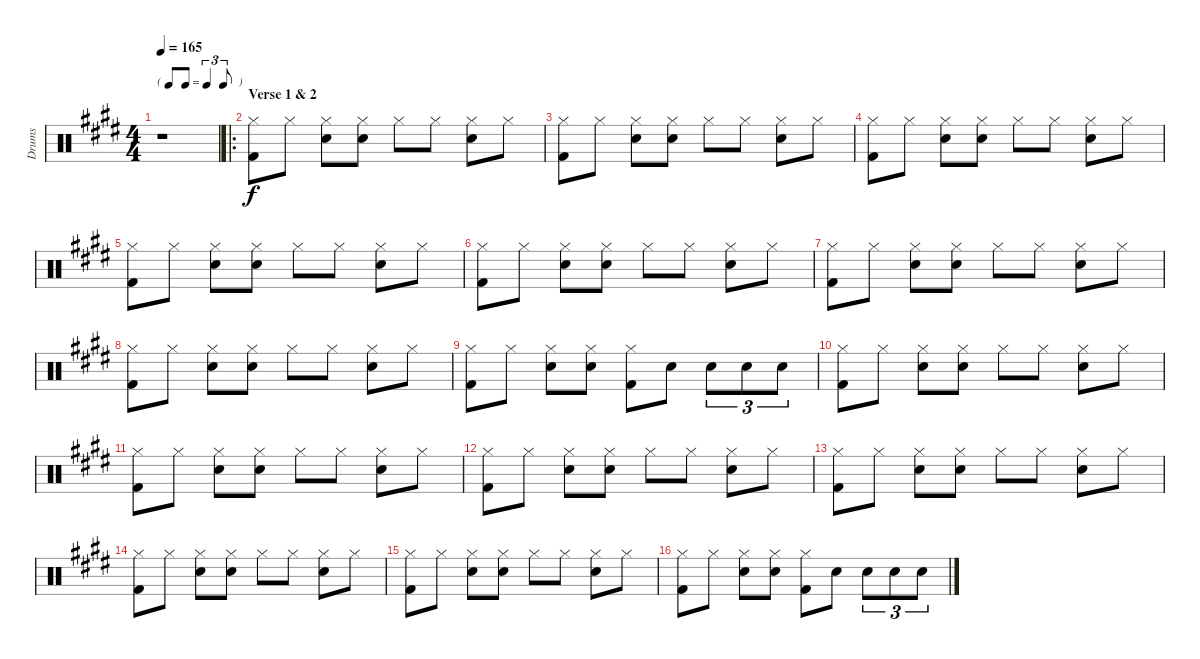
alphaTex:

\track ("Drums" "Drums") {instrument percussion}
\staff {score}
\articulation defaults
\ts (4 4)
\tf triplet8th
\tempo 165
\clef neutral
\ks e
r.1{dy f} |
\ro
\section ("" "Verse 1 & 2")
("Hi-Hat (closed)" "Kick (hit) 2").8 "Hi-Hat (closed)".8 ("Hi-Hat (closed)" "Snare (hit) 2").8 ("Hi-Hat (closed)" "Snare (hit) 2").8 "Hi-Hat (closed)".8 "Hi-Hat (closed)".8 ("Hi-Hat (closed)" "Snare (hit) 2").8 "Hi-Hat (closed)".8 |
("Hi-Hat (closed)" "Kick (hit) 2").8 "Hi-Hat (closed)".8 ("Hi-Hat (closed)" "Snare (hit) 2").8 ("Hi-Hat (closed)" "Snare (hit) 2").8 "Hi-Hat (closed)".8 "Hi-Hat (closed)".8 ("Hi-Hat (closed)" "Snare (hit) 2").8 "Hi-Hat (closed)".8 |
("Hi-Hat (closed)" "Kick (hit) 2").8 "Hi-Hat (closed)".8 ("Hi-Hat (closed)" "Snare (hit) 2").8 ("Hi-Hat (closed)" "Snare (hit) 2").8 "Hi-Hat (closed)".8 "Hi-Hat (closed)".8 ("Hi-Hat (closed)" "Snare (hit) 2").8 "Hi-Hat (closed)".8 |
("Hi-Hat (closed)" "Kick (hit) 2").8 "Hi-Hat (closed)".8 ("Hi-Hat (closed)" "Snare (hit) 2").8 ("Hi-Hat (closed)" "Snare (hit) 2").8 "Hi-Hat (closed)".8 "Hi-Hat (closed)".8 ("Hi-Hat (closed)" "Snare (hit) 2").8 "Hi-Hat (closed)".8 |
("Hi-Hat (closed)" "Kick (hit) 2").8 "Hi-Hat (closed)".8 ("Hi-Hat (closed)" "Snare (hit) 2").8 ("Hi-Hat (closed)" "Snare (hit) 2").8 "Hi-Hat (closed)".8 "Hi-Hat (closed)".8 ("Hi-Hat (closed)" "Snare (hit) 2").8 "Hi-Hat (closed)".8 |
("Hi-Hat (closed)" "Kick (hit) 2").8 "Hi-Hat (closed)".8 ("Hi-Hat (closed)" "Snare (hit) 2").8 ("Hi-Hat (closed)" "Snare (hit) 2").8 "Hi-Hat (closed)".8 "Hi-Hat (closed)".8 ("Hi-Hat (closed)" "Snare (hit) 2").8 "Hi-Hat (closed)".8 |
("Hi-Hat (closed)" "Kick (hit) 2").8 "Hi-Hat (closed)".8 ("Hi-Hat (closed)" "Snare (hit) 2").8 ("Hi-Hat (closed)" "Snare (hit) 2").8 "Hi-Hat (closed)".8 "Hi-Hat (closed)".8 ("Hi-Hat (closed)" "Snare (hit) 2").8 "Hi-Hat (closed)".8 |
("Hi-Hat (closed)" "Kick (hit) 2").8 "Hi-Hat (closed)".8 ("Hi-Hat (closed)" "Snare (hit) 2").8 ("Hi-Hat (closed)" "Snare (hit) 2").8 ("Hi-Hat (closed)" "Kick (hit) 2").8 "Snare (hit) 2".8 "Snare (hit) 2".8{tu (3 2)} "Snare (hit) 2".8{tu (3 2)} "Snare (hit) 2".8{tu (3 2)} |
("Hi-Hat (closed)" "Kick (hit) 2").8 "Hi-Hat (closed)".8 ("Hi-Hat (closed)" "Snare (hit) 2").8 ("Hi-Hat (closed)" "Snare (hit) 2").8 "Hi-Hat (closed)".8 "Hi-Hat (closed)".8 ("Hi-Hat (closed)" "Snare (hit) 2").8 "Hi-Hat (closed)".8 |
("Hi-Hat (closed)" "Kick (hit) 2").8 "Hi-Hat (closed)".8 ("Hi-Hat (closed)" "Snare (hit) 2").8 ("Hi-Hat (closed)" "Snare (hit) 2").8 "Hi-Hat (closed)".8 "Hi-Hat (closed)".8 ("Hi-Hat (closed)" "Snare (hit) 2").8 "Hi-Hat (closed)".8 |
("Hi-Hat (closed)" "Kick (hit) 2").8 "Hi-Hat (closed)".8 ("Hi-Hat (closed)" "Snare (hit) 2").8 ("Hi-Hat (closed)" "Snare (hit) 2").8 "Hi-Hat (closed)".8 "Hi-Hat (closed)".8 ("Hi-Hat (closed)" "Snare (hit) 2").8 "Hi-Hat (closed)".8 |
("Hi-Hat (closed)" "Kick (hit) 2").8 "Hi-Hat (closed)".8 ("Hi-Hat (closed)" "Snare (hit) 2").8 ("Hi-Hat (closed)" "Snare (hit) 2").8 "Hi-Hat (closed)".8 "Hi-Hat (closed)".8 ("Hi-Hat (closed)" "Snare (hit) 2").8 "Hi-Hat (closed)".8 |
("Hi-Hat (closed)" "Kick (hit) 2").8 "Hi-Hat (closed)".8 ("Hi-Hat (closed)" "Snare (hit) 2").8 ("Hi-Hat (closed)" "Snare (hit) 2").8 "Hi-Hat (closed)".8 "Hi-Hat (closed)".8 ("Hi-Hat (closed)" "Snare (hit) 2").8 "Hi-Hat (closed)".8 |
("Hi-Hat (closed)" "Kick (hit) 2").8 "Hi-Hat (closed)".8 ("Hi-Hat (closed)" "Snare (hit) 2").8 ("Hi-Hat (closed)" "Snare (hit) 2").8 "Hi-Hat (closed)".8 "Hi-Hat (closed)".8 ("Hi-Hat (closed)" "Snare (hit) 2").8 "Hi-Hat (closed)".8 |
("Hi-Hat (closed)" "Kick (hit) 2").8 "Hi-Hat (closed)".8 ("Hi-Hat (closed)" "Snare (hit) 2").8 ("Hi-Hat (closed)" "Snare (hit) 2").8 ("Hi-Hat (closed)" "Kick (hit) 2").8 "Snare (hit) 2".8 "Snare (hit) 2".8{tu (3 2)} "Snare (hit) 2".8{tu (3 2)} "Snare (hit) 2".8{tu (3 2)}
